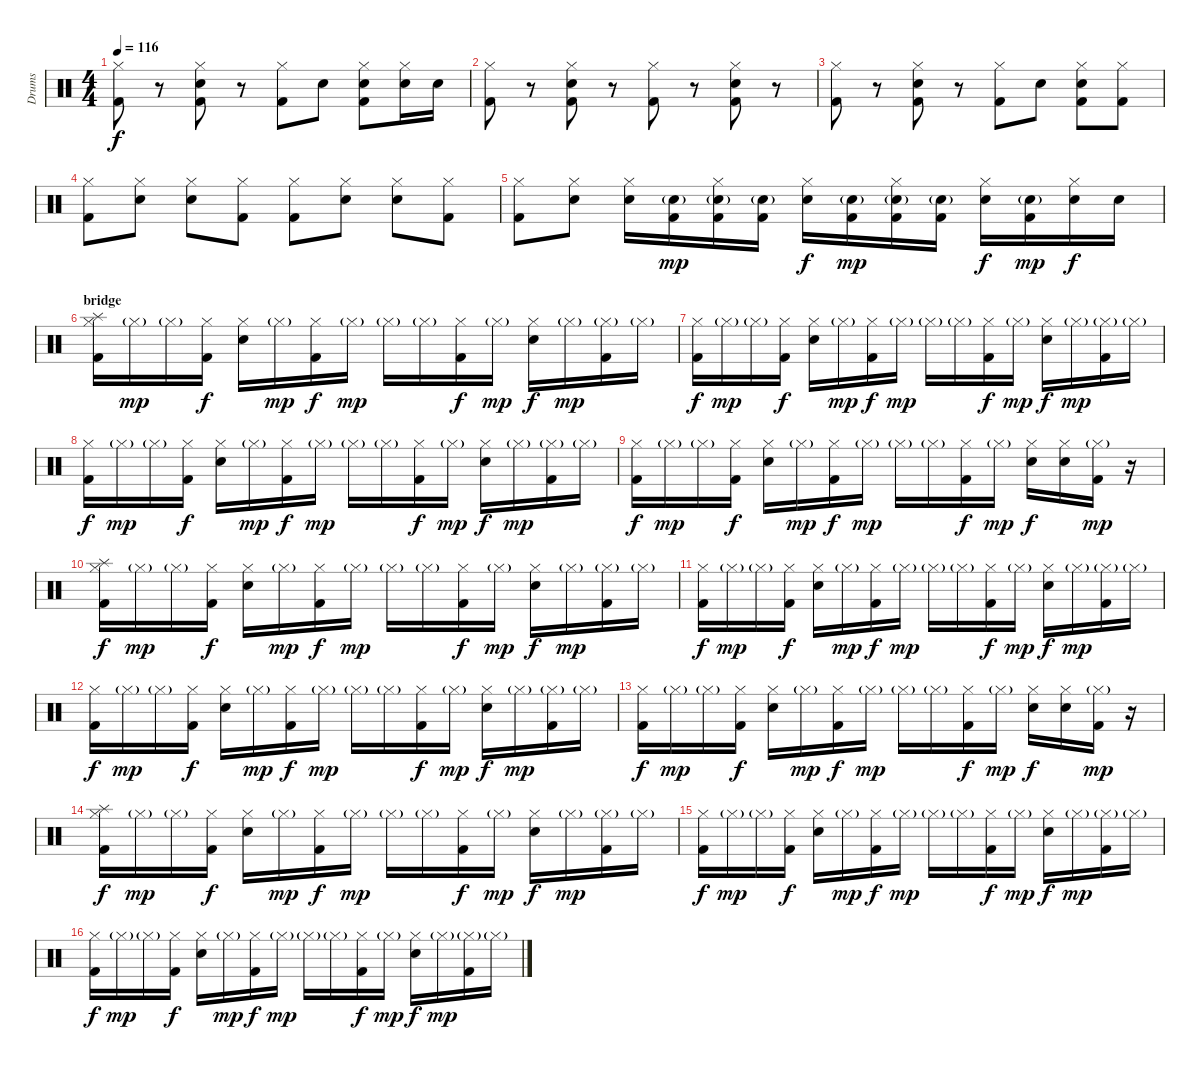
\track ("Drums" "Drums") {instrument percussion}
\staff {score}
\articulation defaults
\ts (4 4)
\tempo 116
\clef neutral
\ks c
("Hi-Hat (closed)" "Kick (hit) 2").8{dy f} r.8 ("Hi-Hat (closed)" "Snare (hit) 2" "Kick (hit) 2").8 r.8 ("Hi-Hat (closed)" "Kick (hit) 2").8 "Snare (hit) 2".8 ("Hi-Hat (closed)" "Snare (hit) 2" "Kick (hit) 2").8 ("Hi-Hat (closed)" "Snare (hit) 2").16 "Snare (hit) 2".16 |
("Hi-Hat (closed)" "Kick (hit) 2").8 r.8 ("Hi-Hat (closed)" "Snare (hit) 2" "Kick (hit) 2").8 r.8 ("Hi-Hat (closed)" "Kick (hit) 2").8 r.8 ("Hi-Hat (closed)" "Snare (hit) 2" "Kick (hit) 2").8 r.8 |
("Hi-Hat (closed)" "Kick (hit) 2").8 r.8 ("Hi-Hat (closed)" "Snare (hit) 2" "Kick (hit) 2").8 r.8 ("Hi-Hat (closed)" "Kick (hit) 2").8 "Snare (hit) 2".8 ("Hi-Hat (closed)" "Snare (hit) 2" "Kick (hit) 2").8 ("Hi-Hat (closed)" "Kick (hit) 2").8 |
("Hi-Hat (closed)" "Kick (hit) 2").8 ("Hi-Hat (closed)" "Snare (hit) 2").8 ("Hi-Hat (closed)" "Snare (hit) 2").8 ("Hi-Hat (closed)" "Kick (hit) 2").8 ("Hi-Hat (closed)" "Kick (hit) 2").8 ("Hi-Hat (closed)" "Snare (hit) 2").8 ("Hi-Hat (closed)" "Snare (hit) 2").8 ("Hi-Hat (closed)" "Kick (hit) 2").8 |
("Hi-Hat (closed)" "Kick (hit) 2").8 ("Hi-Hat (closed)" "Snare (hit) 2").8 ("Hi-Hat (closed)" "Snare (hit) 2").16 ("Snare (hit) 2"{g} "Kick (hit) 2").16{dy mp} ("Hi-Hat (closed)" "Snare (hit) 2"{g} "Kick (hit) 2").16 ("Snare (hit) 2"{g} "Kick (hit) 2").16 ("Hi-Hat (closed)" "Snare (hit) 2").16{dy f} ("Snare (hit) 2"{g} "Kick (hit) 2").16{dy mp} ("Hi-Hat (closed)" "Snare (hit) 2"{g} "Kick (hit) 2").16 ("Snare (hit) 2"{g} "Kick (hit) 2").16 ("Hi-Hat (closed)" "Snare (hit) 2").16{dy f} ("Snare (hit) 2"{g} "Kick (hit) 2").16{dy mp} ("Hi-Hat (closed)" "Snare (hit) 2").16{dy f} "Snare (hit) 2".16 |
\section ("" "bridge")
("Splash (hit)" "Hi-Hat (closed)" "Kick (hit) 2").16 "Hi-Hat (closed)"{g}.16{dy mp} "Hi-Hat (closed)"{g}.16 ("Hi-Hat (closed)" "Kick (hit) 2").16{dy f} ("Hi-Hat (closed)" "Snare (hit) 2").16 "Hi-Hat (closed)"{g}.16{dy mp} ("Hi-Hat (closed)" "Kick (hit) 2").16{dy f} "Hi-Hat (closed)"{g}.16{dy mp} "Hi-Hat (closed)"{g}.16 "Hi-Hat (closed)"{g}.16 ("Hi-Hat (closed)" "Kick (hit) 2").16{dy f} "Hi-Hat (closed)"{g}.16{dy mp} ("Hi-Hat (closed)" "Snare (hit) 2").16{dy f} "Hi-Hat (closed)"{g}.16{dy mp} ("Hi-Hat (closed)"{g} "Kick (hit) 2").16 "Hi-Hat (closed)"{g}.16 |
("Hi-Hat (closed)" "Kick (hit) 2").16{dy f} "Hi-Hat (closed)"{g}.16{dy mp} "Hi-Hat (closed)"{g}.16 ("Hi-Hat (closed)" "Kick (hit) 2").16{dy f} ("Hi-Hat (closed)" "Snare (hit) 2").16 "Hi-Hat (closed)"{g}.16{dy mp} ("Hi-Hat (closed)" "Kick (hit) 2").16{dy f} "Hi-Hat (closed)"{g}.16{dy mp} "Hi-Hat (closed)"{g}.16 "Hi-Hat (closed)"{g}.16 ("Hi-Hat (closed)" "Kick (hit) 2").16{dy f} "Hi-Hat (closed)"{g}.16{dy mp} ("Hi-Hat (closed)" "Snare (hit) 2").16{dy f} "Hi-Hat (closed)"{g}.16{dy mp} ("Hi-Hat (closed)"{g} "Kick (hit) 2").16 "Hi-Hat (closed)"{g}.16 |
("Hi-Hat (closed)" "Kick (hit) 2").16{dy f} "Hi-Hat (closed)"{g}.16{dy mp} "Hi-Hat (closed)"{g}.16 ("Hi-Hat (closed)" "Kick (hit) 2").16{dy f} ("Hi-Hat (closed)" "Snare (hit) 2").16 "Hi-Hat (closed)"{g}.16{dy mp} ("Hi-Hat (closed)" "Kick (hit) 2").16{dy f} "Hi-Hat (closed)"{g}.16{dy mp} "Hi-Hat (closed)"{g}.16 "Hi-Hat (closed)"{g}.16 ("Hi-Hat (closed)" "Kick (hit) 2").16{dy f} "Hi-Hat (closed)"{g}.16{dy mp} ("Hi-Hat (closed)" "Snare (hit) 2").16{dy f} "Hi-Hat (closed)"{g}.16{dy mp} ("Hi-Hat (closed)"{g} "Kick (hit) 2").16 "Hi-Hat (closed)"{g}.16 |
("Hi-Hat (closed)" "Kick (hit) 2").16{dy f} "Hi-Hat (closed)"{g}.16{dy mp} "Hi-Hat (closed)"{g}.16 ("Hi-Hat (closed)" "Kick (hit) 2").16{dy f} ("Hi-Hat (closed)" "Snare (hit) 2").16 "Hi-Hat (closed)"{g}.16{dy mp} ("Hi-Hat (closed)" "Kick (hit) 2").16{dy f} "Hi-Hat (closed)"{g}.16{dy mp} "Hi-Hat (closed)"{g}.16 "Hi-Hat (closed)"{g}.16 ("Hi-Hat (closed)" "Kick (hit) 2").16{dy f} "Hi-Hat (closed)"{g}.16{dy mp} ("Hi-Hat (closed)" "Snare (hit) 2").16{dy f} ("Hi-Hat (closed)" "Snare (hit) 2").16 ("Hi-Hat (closed)"{g} "Kick (hit) 2").16{dy mp} r.16 |
("Splash (hit)" "Hi-Hat (closed)" "Kick (hit) 2").16{dy f} "Hi-Hat (closed)"{g}.16{dy mp} "Hi-Hat (closed)"{g}.16 ("Hi-Hat (closed)" "Kick (hit) 2").16{dy f} ("Hi-Hat (closed)" "Snare (hit) 2").16 "Hi-Hat (closed)"{g}.16{dy mp} ("Hi-Hat (closed)" "Kick (hit) 2").16{dy f} "Hi-Hat (closed)"{g}.16{dy mp} "Hi-Hat (closed)"{g}.16 "Hi-Hat (closed)"{g}.16 ("Hi-Hat (closed)" "Kick (hit) 2").16{dy f} "Hi-Hat (closed)"{g}.16{dy mp} ("Hi-Hat (closed)" "Snare (hit) 2").16{dy f} "Hi-Hat (closed)"{g}.16{dy mp} ("Hi-Hat (closed)"{g} "Kick (hit) 2").16 "Hi-Hat (closed)"{g}.16 |
("Hi-Hat (closed)" "Kick (hit) 2").16{dy f} "Hi-Hat (closed)"{g}.16{dy mp} "Hi-Hat (closed)"{g}.16 ("Hi-Hat (closed)" "Kick (hit) 2").16{dy f} ("Hi-Hat (closed)" "Snare (hit) 2").16 "Hi-Hat (closed)"{g}.16{dy mp} ("Hi-Hat (closed)" "Kick (hit) 2").16{dy f} "Hi-Hat (closed)"{g}.16{dy mp} "Hi-Hat (closed)"{g}.16 "Hi-Hat (closed)"{g}.16 ("Hi-Hat (closed)" "Kick (hit) 2").16{dy f} "Hi-Hat (closed)"{g}.16{dy mp} ("Hi-Hat (closed)" "Snare (hit) 2").16{dy f} "Hi-Hat (closed)"{g}.16{dy mp} ("Hi-Hat (closed)"{g} "Kick (hit) 2").16 "Hi-Hat (closed)"{g}.16 |
("Hi-Hat (closed)" "Kick (hit) 2").16{dy f} "Hi-Hat (closed)"{g}.16{dy mp} "Hi-Hat (closed)"{g}.16 ("Hi-Hat (closed)" "Kick (hit) 2").16{dy f} ("Hi-Hat (closed)" "Snare (hit) 2").16 "Hi-Hat (closed)"{g}.16{dy mp} ("Hi-Hat (closed)" "Kick (hit) 2").16{dy f} "Hi-Hat (closed)"{g}.16{dy mp} "Hi-Hat (closed)"{g}.16 "Hi-Hat (closed)"{g}.16 ("Hi-Hat (closed)" "Kick (hit) 2").16{dy f} "Hi-Hat (closed)"{g}.16{dy mp} ("Hi-Hat (closed)" "Snare (hit) 2").16{dy f} "Hi-Hat (closed)"{g}.16{dy mp} ("Hi-Hat (closed)"{g} "Kick (hit) 2").16 "Hi-Hat (closed)"{g}.16 |
("Hi-Hat (closed)" "Kick (hit) 2").16{dy f} "Hi-Hat (closed)"{g}.16{dy mp} "Hi-Hat (closed)"{g}.16 ("Hi-Hat (closed)" "Kick (hit) 2").16{dy f} ("Hi-Hat (closed)" "Snare (hit) 2").16 "Hi-Hat (closed)"{g}.16{dy mp} ("Hi-Hat (closed)" "Kick (hit) 2").16{dy f} "Hi-Hat (closed)"{g}.16{dy mp} "Hi-Hat (closed)"{g}.16 "Hi-Hat (closed)"{g}.16 ("Hi-Hat (closed)" "Kick (hit) 2").16{dy f} "Hi-Hat (closed)"{g}.16{dy mp} ("Hi-Hat (closed)" "Snare (hit) 2").16{dy f} ("Hi-Hat (closed)" "Snare (hit) 2").16 ("Hi-Hat (closed)"{g} "Kick (hit) 2").16{dy mp} r.16 |
("Splash (hit)" "Hi-Hat (closed)" "Kick (hit) 2").16{dy f} "Hi-Hat (closed)"{g}.16{dy mp} "Hi-Hat (closed)"{g}.16 ("Hi-Hat (closed)" "Kick (hit) 2").16{dy f} ("Hi-Hat (closed)" "Snare (hit) 2").16 "Hi-Hat (closed)"{g}.16{dy mp} ("Hi-Hat (closed)" "Kick (hit) 2").16{dy f} "Hi-Hat (closed)"{g}.16{dy mp} "Hi-Hat (closed)"{g}.16 "Hi-Hat (closed)"{g}.16 ("Hi-Hat (closed)" "Kick (hit) 2").16{dy f} "Hi-Hat (closed)"{g}.16{dy mp} ("Hi-Hat (closed)" "Snare (hit) 2").16{dy f} "Hi-Hat (closed)"{g}.16{dy mp} ("Hi-Hat (closed)"{g} "Kick (hit) 2").16 "Hi-Hat (closed)"{g}.16 |
("Hi-Hat (closed)" "Kick (hit) 2").16{dy f} "Hi-Hat (closed)"{g}.16{dy mp} "Hi-Hat (closed)"{g}.16 ("Hi-Hat (closed)" "Kick (hit) 2").16{dy f} ("Hi-Hat (closed)" "Snare (hit) 2").16 "Hi-Hat (closed)"{g}.16{dy mp} ("Hi-Hat (closed)" "Kick (hit) 2").16{dy f} "Hi-Hat (closed)"{g}.16{dy mp} "Hi-Hat (closed)"{g}.16 "Hi-Hat (closed)"{g}.16 ("Hi-Hat (closed)" "Kick (hit) 2").16{dy f} "Hi-Hat (closed)"{g}.16{dy mp} ("Hi-Hat (closed)" "Snare (hit) 2").16{dy f} "Hi-Hat (closed)"{g}.16{dy mp} ("Hi-Hat (closed)"{g} "Kick (hit) 2").16 "Hi-Hat (closed)"{g}.16 |
("Hi-Hat (closed)" "Kick (hit) 2").16{dy f} "Hi-Hat (closed)"{g}.16{dy mp} "Hi-Hat (closed)"{g}.16 ("Hi-Hat (closed)" "Kick (hit) 2").16{dy f} ("Hi-Hat (closed)" "Snare (hit) 2").16 "Hi-Hat (closed)"{g}.16{dy mp} ("Hi-Hat (closed)" "Kick (hit) 2").16{dy f} "Hi-Hat (closed)"{g}.16{dy mp} "Hi-Hat (closed)"{g}.16 "Hi-Hat (closed)"{g}.16 ("Hi-Hat (closed)" "Kick (hit) 2").16{dy f} "Hi-Hat (closed)"{g}.16{dy mp} ("Hi-Hat (closed)" "Snare (hit) 2").16{dy f} "Hi-Hat (closed)"{g}.16{dy mp} ("Hi-Hat (closed)"{g} "Kick (hit) 2").16 "Hi-Hat (closed)"{g}.16
